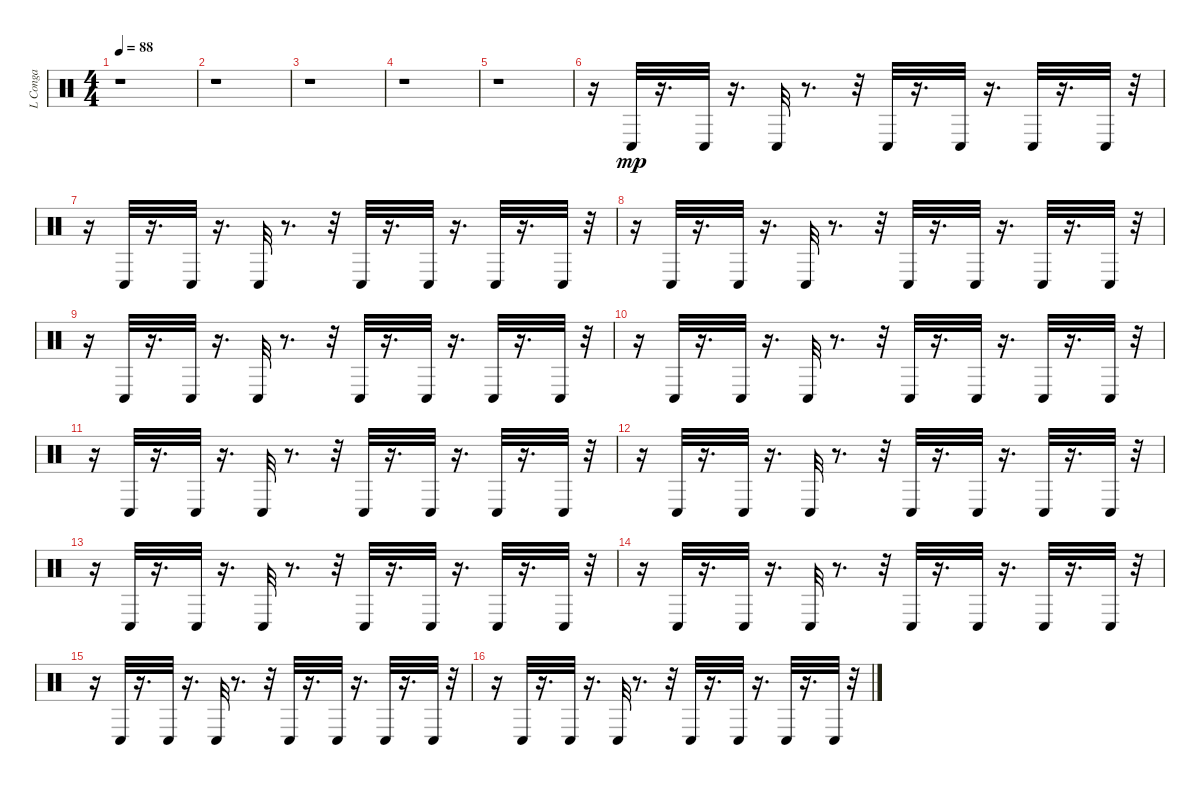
\track ("L Conga" "L Conga") {instrument percussion}
\staff {score}
\articulation defaults
\ts (4 4)
\tempo 88
\clef neutral
\ks c
r.1{dy mp} |
r.1 |
r.1 |
r.1 |
r.1 |
r.16 "Conga low (hit)".32 r.16{d} "Conga low (hit)".32 r.16{d} "Conga low (hit)".32 r.8{d} r.32 "Conga low (hit)".32 r.16{d} "Conga low (hit)".32 r.16{d} "Conga low (hit)".32 r.16{d} "Conga low (hit)".32 r.32 |
r.16 "Conga low (hit)".32 r.16{d} "Conga low (hit)".32 r.16{d} "Conga low (hit)".32 r.8{d} r.32 "Conga low (hit)".32 r.16{d} "Conga low (hit)".32 r.16{d} "Conga low (hit)".32 r.16{d} "Conga low (hit)".32 r.32 |
r.16 "Conga low (hit)".32 r.16{d} "Conga low (hit)".32 r.16{d} "Conga low (hit)".32 r.8{d} r.32 "Conga low (hit)".32 r.16{d} "Conga low (hit)".32 r.16{d} "Conga low (hit)".32 r.16{d} "Conga low (hit)".32 r.32 |
r.16 "Conga low (hit)".32 r.16{d} "Conga low (hit)".32 r.16{d} "Conga low (hit)".32 r.8{d} r.32 "Conga low (hit)".32 r.16{d} "Conga low (hit)".32 r.16{d} "Conga low (hit)".32 r.16{d} "Conga low (hit)".32 r.32 |
r.16 "Conga low (hit)".32 r.16{d} "Conga low (hit)".32 r.16{d} "Conga low (hit)".32 r.8{d} r.32 "Conga low (hit)".32 r.16{d} "Conga low (hit)".32 r.16{d} "Conga low (hit)".32 r.16{d} "Conga low (hit)".32 r.32 |
r.16 "Conga low (hit)".32 r.16{d} "Conga low (hit)".32 r.16{d} "Conga low (hit)".32 r.8{d} r.32 "Conga low (hit)".32 r.16{d} "Conga low (hit)".32 r.16{d} "Conga low (hit)".32 r.16{d} "Conga low (hit)".32 r.32 |
r.16 "Conga low (hit)".32 r.16{d} "Conga low (hit)".32 r.16{d} "Conga low (hit)".32 r.8{d} r.32 "Conga low (hit)".32 r.16{d} "Conga low (hit)".32 r.16{d} "Conga low (hit)".32 r.16{d} "Conga low (hit)".32 r.32 |
r.16 "Conga low (hit)".32 r.16{d} "Conga low (hit)".32 r.16{d} "Conga low (hit)".32 r.8{d} r.32 "Conga low (hit)".32 r.16{d} "Conga low (hit)".32 r.16{d} "Conga low (hit)".32 r.16{d} "Conga low (hit)".32 r.32 |
r.16 "Conga low (hit)".32 r.16{d} "Conga low (hit)".32 r.16{d} "Conga low (hit)".32 r.8{d} r.32 "Conga low (hit)".32 r.16{d} "Conga low (hit)".32 r.16{d} "Conga low (hit)".32 r.16{d} "Conga low (hit)".32 r.32 |
r.16 "Conga low (hit)".32 r.16{d} "Conga low (hit)".32 r.16{d} "Conga low (hit)".32 r.8{d} r.32 "Conga low (hit)".32 r.16{d} "Conga low (hit)".32 r.16{d} "Conga low (hit)".32 r.16{d} "Conga low (hit)".32 r.32 |
r.16 "Conga low (hit)".32 r.16{d} "Conga low (hit)".32 r.16{d} "Conga low (hit)".32 r.8{d} r.32 "Conga low (hit)".32 r.16{d} "Conga low (hit)".32 r.16{d} "Conga low (hit)".32 r.16{d} "Conga low (hit)".32 r.32
